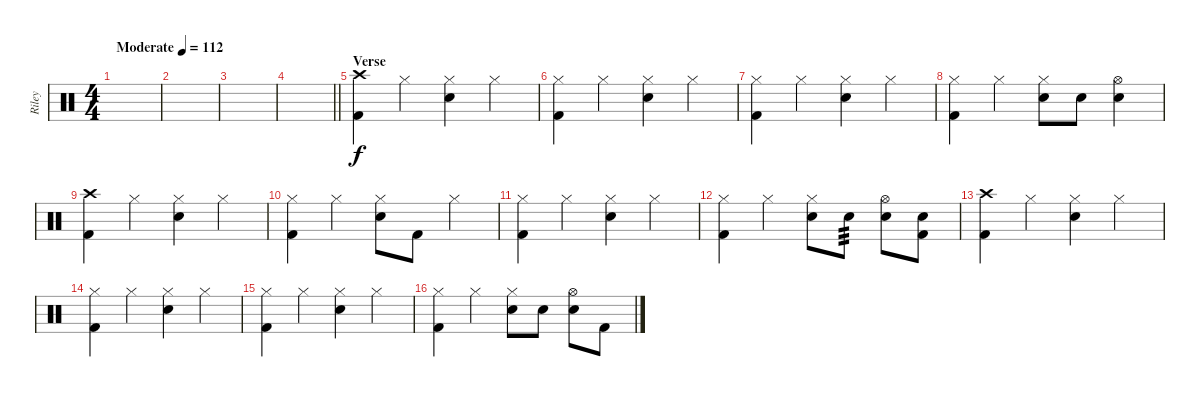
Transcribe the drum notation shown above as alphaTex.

\track ("Riley" "Riley") {instrument percussion}
\staff {score}
\articulation defaults
\ts (4 4)
\tempo (112 "Moderate")
\clef neutral
\ks c
|
|
|
\barLineRight lightlight
|
\section ("" "Verse ")
("Crash high (hit)" "Kick (hit) 2").4 "Hi-Hat (closed)".4 ("Hi-Hat (closed)" "Snare (hit) 2").4 "Hi-Hat (closed)".4 |
("Hi-Hat (closed)" "Kick (hit) 2").4 "Hi-Hat (closed)".4 ("Hi-Hat (closed)" "Snare (hit) 2").4 "Hi-Hat (closed)".4 |
("Hi-Hat (closed)" "Kick (hit) 2").4 "Hi-Hat (closed)".4 ("Hi-Hat (closed)" "Snare (hit) 2").4 "Hi-Hat (closed)".4 |
("Hi-Hat (closed)" "Kick (hit) 2").4 "Hi-Hat (closed)".4 ("Hi-Hat (closed)" "Snare (hit) 2").8 "Snare (hit) 2".8 ("Hi-Hat (open)" "Snare (hit) 2").4 |
("Crash high (hit)" "Kick (hit) 2").4 "Hi-Hat (closed)".4 ("Hi-Hat (closed)" "Snare (hit) 2").4 "Hi-Hat (closed)".4 |
("Hi-Hat (closed)" "Kick (hit) 2").4 "Hi-Hat (closed)".4 ("Hi-Hat (closed)" "Snare (hit) 2").8 "Kick (hit) 2".8 "Hi-Hat (closed)".4 |
("Hi-Hat (closed)" "Kick (hit) 2").4 "Hi-Hat (closed)".4 ("Hi-Hat (closed)" "Snare (hit) 2").4 "Hi-Hat (closed)".4 |
("Hi-Hat (closed)" "Kick (hit) 2").4 "Hi-Hat (closed)".4 ("Hi-Hat (closed)" "Snare (hit) 2").8 "Snare (hit) 2".8{tp 3} ("Hi-Hat (open)" "Snare (hit) 2").8 ("Snare (hit) 2" "Kick (hit) 2").8 |
("Crash high (hit)" "Kick (hit) 2").4 "Hi-Hat (closed)".4 ("Hi-Hat (closed)" "Snare (hit) 2").4 "Hi-Hat (closed)".4 |
("Hi-Hat (closed)" "Kick (hit) 2").4 "Hi-Hat (closed)".4 ("Hi-Hat (closed)" "Snare (hit) 2").4 "Hi-Hat (closed)".4 |
("Hi-Hat (closed)" "Kick (hit) 2").4 "Hi-Hat (closed)".4 ("Hi-Hat (closed)" "Snare (hit) 2").4 "Hi-Hat (closed)".4 |
("Hi-Hat (closed)" "Kick (hit) 2").4 "Hi-Hat (closed)".4 ("Hi-Hat (closed)" "Snare (hit) 2").8 "Snare (hit) 2".8 ("Hi-Hat (open)" "Snare (hit) 2").8 "Kick (hit) 2".8
